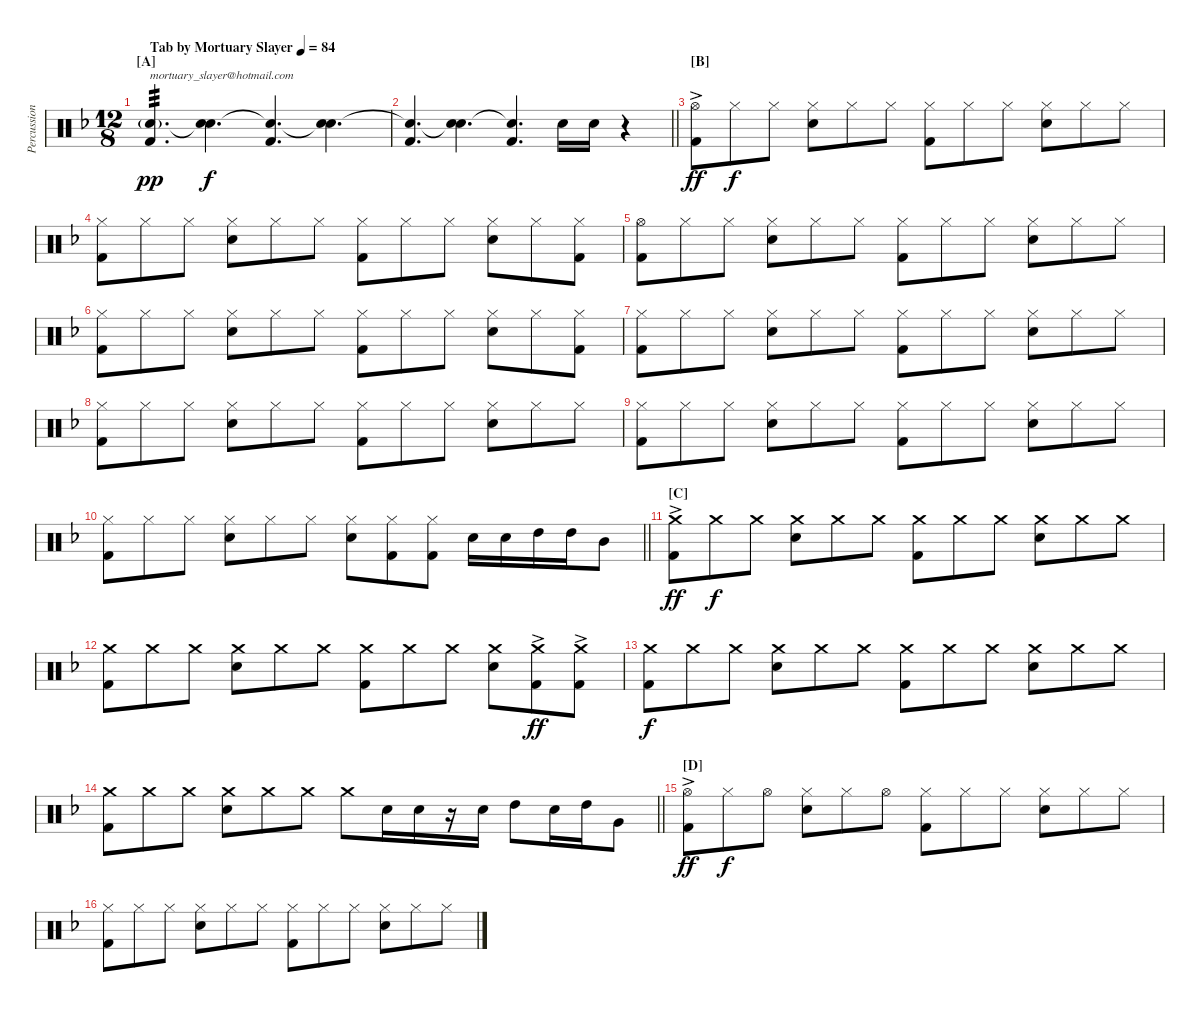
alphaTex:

\track ("Percussions" "Percussion") {instrument percussion}
\staff {score}
\articulation defaults
\ts (12 8)
\section ("" "[A]")
\tempo (84 "Tab by Mortuary Slayer")
\clef neutral
\ks dminor
("Snare (hit) 2"{g} "Kick (hit) 2").4{d txt "mortuary_slayer@hotmail.com" tp 3 dy pp} ("Snare (hit)"{t} "Electric Snare (hit)").4{d dy f} ("Snare (hit)"{t} "Kick (hit) 2").4{d} ("Snare (hit)"{t} "Electric Snare (hit)").4{d} |
\barLineRight lightlight
("Snare (hit) 2"{t} "Kick (hit) 2").4{d} ("Snare (hit)"{t} "Electric Snare (hit)").4{d} ("Snare (hit)"{t} "Kick (hit) 2").4{d} "Electric Snare (hit)".16 "Electric Snare (hit)".16 r.4 |
\section ("" "[B]")
("Hi-Hat (open)"{ac} "Kick (hit) 2").8{dy ff} "Hi-Hat (closed)".8{dy f} "Hi-Hat (closed)".8 ("Hi-Hat (closed)" "Electric Snare (hit)").8 "Hi-Hat (closed)".8 "Hi-Hat (closed)".8 ("Hi-Hat (closed)" "Kick (hit) 2").8 "Hi-Hat (closed)".8 "Hi-Hat (closed)".8 ("Hi-Hat (closed)" "Electric Snare (hit)").8 "Hi-Hat (closed)".8 "Hi-Hat (closed)".8 |
("Hi-Hat (closed)" "Kick (hit) 2").8 "Hi-Hat (closed)".8 "Hi-Hat (closed)".8 ("Hi-Hat (closed)" "Electric Snare (hit)").8 "Hi-Hat (closed)".8 "Hi-Hat (closed)".8 ("Hi-Hat (closed)" "Kick (hit) 2").8 "Hi-Hat (closed)".8 "Hi-Hat (closed)".8 ("Hi-Hat (closed)" "Electric Snare (hit)").8 "Hi-Hat (closed)".8 ("Hi-Hat (closed)" "Kick (hit) 2").8 |
("Hi-Hat (open)" "Kick (hit) 2").8 "Hi-Hat (closed)".8 "Hi-Hat (closed)".8 ("Hi-Hat (closed)" "Electric Snare (hit)").8 "Hi-Hat (closed)".8 "Hi-Hat (closed)".8 ("Hi-Hat (closed)" "Kick (hit) 2").8 "Hi-Hat (closed)".8 "Hi-Hat (closed)".8 ("Hi-Hat (closed)" "Electric Snare (hit)").8 "Hi-Hat (closed)".8 "Hi-Hat (closed)".8 |
("Hi-Hat (closed)" "Kick (hit) 2").8 "Hi-Hat (closed)".8 "Hi-Hat (closed)".8 ("Hi-Hat (closed)" "Electric Snare (hit)").8 "Hi-Hat (closed)".8 "Hi-Hat (closed)".8 ("Hi-Hat (closed)" "Kick (hit) 2").8 "Hi-Hat (closed)".8 "Hi-Hat (closed)".8 ("Hi-Hat (closed)" "Electric Snare (hit)").8 "Hi-Hat (closed)".8 ("Hi-Hat (closed)" "Kick (hit) 2").8 |
("Hi-Hat (closed)" "Kick (hit) 2").8 "Hi-Hat (closed)".8 "Hi-Hat (closed)".8 ("Hi-Hat (closed)" "Electric Snare (hit)").8 "Hi-Hat (closed)".8 "Hi-Hat (closed)".8 ("Hi-Hat (closed)" "Kick (hit) 2").8 "Hi-Hat (closed)".8 "Hi-Hat (closed)".8 ("Hi-Hat (closed)" "Electric Snare (hit)").8 "Hi-Hat (closed)".8 "Hi-Hat (closed)".8 |
("Hi-Hat (closed)" "Kick (hit) 2").8 "Hi-Hat (closed)".8 "Hi-Hat (closed)".8 ("Hi-Hat (closed)" "Electric Snare (hit)").8 "Hi-Hat (closed)".8 "Hi-Hat (closed)".8 ("Hi-Hat (closed)" "Kick (hit) 2").8 "Hi-Hat (closed)".8 "Hi-Hat (closed)".8 ("Hi-Hat (closed)" "Electric Snare (hit)").8 "Hi-Hat (closed)".8 "Hi-Hat (closed)".8 |
("Hi-Hat (closed)" "Kick (hit) 2").8 "Hi-Hat (closed)".8 "Hi-Hat (closed)".8 ("Hi-Hat (closed)" "Electric Snare (hit)").8 "Hi-Hat (closed)".8 "Hi-Hat (closed)".8 ("Hi-Hat (closed)" "Kick (hit) 2").8 "Hi-Hat (closed)".8 "Hi-Hat (closed)".8 ("Hi-Hat (closed)" "Electric Snare (hit)").8 "Hi-Hat (closed)".8 "Hi-Hat (closed)".8 |
\barLineRight lightlight
("Hi-Hat (closed)" "Kick (hit) 2").8 "Hi-Hat (closed)".8 "Hi-Hat (closed)".8 ("Hi-Hat (closed)" "Electric Snare (hit)").8 "Hi-Hat (closed)".8 "Hi-Hat (closed)".8 ("Hi-Hat (closed)" "Electric Snare (hit)").8 ("Hi-Hat (closed)" "Kick (hit) 2").8 ("Hi-Hat (closed)" "Kick (hit) 2").8 "Electric Snare (hit)".16 "Electric Snare (hit)".16 "High Tom (hit)".16 "High Tom (hit)".16 "Mid Tom (hit)".8 |
\section ("" "[C]")
("Crash medium (hit)"{ac} "Kick (hit) 2").8{dy ff} "Crash medium (hit)".8{dy f} "Crash medium (hit)".8 ("Crash medium (hit)" "Electric Snare (hit)").8 "Crash medium (hit)".8 "Crash medium (hit)".8 ("Crash medium (hit)" "Kick (hit) 2").8 "Crash medium (hit)".8 "Crash medium (hit)".8 ("Crash medium (hit)" "Electric Snare (hit)").8 "Crash medium (hit)".8 "Crash medium (hit)".8 |
("Crash medium (hit)" "Kick (hit) 2").8 "Crash medium (hit)".8 "Crash medium (hit)".8 ("Crash medium (hit)" "Electric Snare (hit)").8 "Crash medium (hit)".8 "Crash medium (hit)".8 ("Crash medium (hit)" "Kick (hit) 2").8 "Crash medium (hit)".8 "Crash medium (hit)".8 ("Crash medium (hit)" "Electric Snare (hit)").8 ("Crash medium (hit)" "Kick (hit) 2"{ac}).8{dy ff} ("Crash medium (hit)" "Kick (hit) 2"{ac}).8 |
("Crash medium (hit)" "Kick (hit) 2").8{dy f} "Crash medium (hit)".8 "Crash medium (hit)".8 ("Crash medium (hit)" "Electric Snare (hit)").8 "Crash medium (hit)".8 "Crash medium (hit)".8 ("Crash medium (hit)" "Kick (hit) 2").8 "Crash medium (hit)".8 "Crash medium (hit)".8 ("Crash medium (hit)" "Electric Snare (hit)").8 "Crash medium (hit)".8 "Crash medium (hit)".8 |
\barLineRight lightlight
("Crash medium (hit)" "Kick (hit) 2").8 "Crash medium (hit)".8 "Crash medium (hit)".8 ("Crash medium (hit)" "Electric Snare (hit)").8 "Crash medium (hit)".8 "Crash medium (hit)".8 "Crash medium (hit)".8 "Electric Snare (hit)".16 "Electric Snare (hit)".16 r.16 "Electric Snare (hit)".16 "High Tom (hit)".8 "Electric Snare (hit)".16 "High Tom (hit)".16 "Very Low Tom (hit)".8 |
\section ("" "[D]")
("Hi-Hat (open)"{ac} "Kick (hit) 2").8{dy ff} "Hi-Hat (closed)".8{dy f} "Hi-Hat (open)".8 ("Hi-Hat (closed)" "Electric Snare (hit)").8 "Hi-Hat (closed)".8 "Hi-Hat (open)".8 ("Hi-Hat (closed)" "Kick (hit) 2").8 "Hi-Hat (closed)".8 "Hi-Hat (closed)".8 ("Hi-Hat (closed)" "Electric Snare (hit)").8 "Hi-Hat (closed)".8 "Hi-Hat (closed)".8 |
("Hi-Hat (closed)" "Kick (hit) 2").8 "Hi-Hat (closed)".8 "Hi-Hat (closed)".8 ("Hi-Hat (closed)" "Electric Snare (hit)").8 "Hi-Hat (closed)".8 "Hi-Hat (closed)".8 ("Hi-Hat (closed)" "Kick (hit) 2").8 "Hi-Hat (closed)".8 "Hi-Hat (closed)".8 ("Hi-Hat (closed)" "Electric Snare (hit)").8 "Hi-Hat (closed)".8 "Hi-Hat (closed)".8
